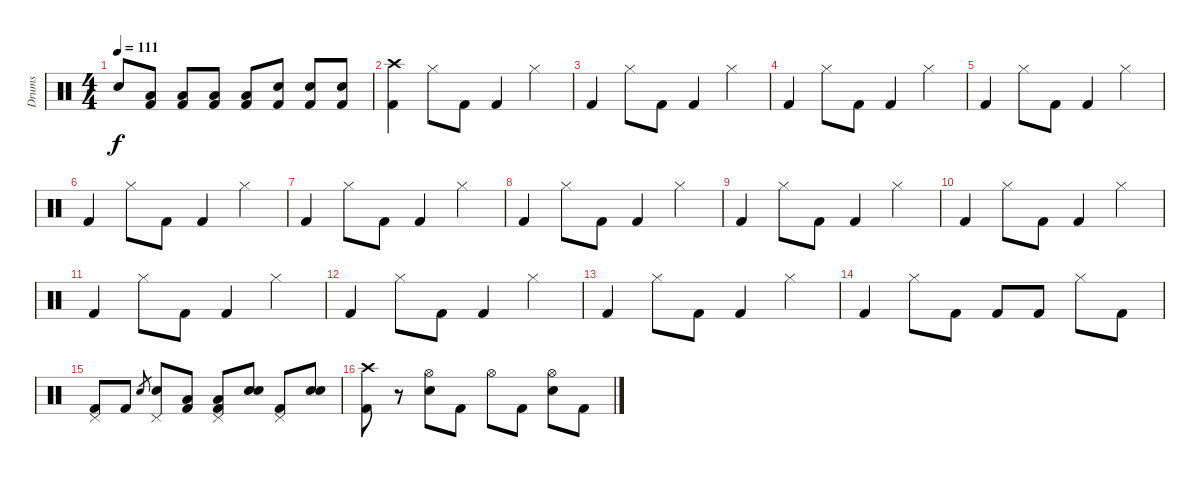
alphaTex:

\track ("Drums" "Drums") {instrument percussion}
\staff {score}
\articulation defaults
\ts (4 4)
\tempo 111
\clef neutral
\ks c "Snare (hit) 2".8{dy f}
("Low Floor Tom (hit)" "Kick (hit) 2").8 ("Low Floor Tom (hit)" "Kick (hit) 2").8 ("Low Floor Tom (hit)" "Kick (hit) 2").8 ("Low Floor Tom (hit)" "Kick (hit) 2").8 ("Snare (hit) 2" "Kick (hit) 2").8 ("Snare (hit) 2" "Kick (hit) 2").8 ("Snare (hit) 2" "Kick (hit) 2").8 |
("Crash high (hit)" "Kick (hit) 2").4 "Hi-Hat (closed)".8 "Kick (hit) 2".8 "Kick (hit) 2".4 "Hi-Hat (closed)".4 |
"Kick (hit) 2".4 "Hi-Hat (closed)".8 "Kick (hit) 2".8 "Kick (hit) 2".4 "Hi-Hat (closed)".4 |
"Kick (hit) 2".4 "Hi-Hat (closed)".8 "Kick (hit) 2".8 "Kick (hit) 2".4 "Hi-Hat (closed)".4 |
"Kick (hit) 2".4 "Hi-Hat (closed)".8 "Kick (hit) 2".8 "Kick (hit) 2".4 "Hi-Hat (closed)".4 |
"Kick (hit) 2".4 "Hi-Hat (closed)".8 "Kick (hit) 2".8 "Kick (hit) 2".4 "Hi-Hat (closed)".4 |
"Kick (hit) 2".4 "Hi-Hat (closed)".8 "Kick (hit) 2".8 "Kick (hit) 2".4 "Hi-Hat (closed)".4 |
"Kick (hit) 2".4 "Hi-Hat (closed)".8 "Kick (hit) 2".8 "Kick (hit) 2".4 "Hi-Hat (closed)".4 |
"Kick (hit) 2".4 "Hi-Hat (closed)".8 "Kick (hit) 2".8 "Kick (hit) 2".4 "Hi-Hat (closed)".4 |
"Kick (hit) 2".4 "Hi-Hat (closed)".8 "Kick (hit) 2".8 "Kick (hit) 2".4 "Hi-Hat (closed)".4 |
"Kick (hit) 2".4 "Hi-Hat (closed)".8 "Kick (hit) 2".8 "Kick (hit) 2".4 "Hi-Hat (closed)".4 |
"Kick (hit) 2".4 "Hi-Hat (closed)".8 "Kick (hit) 2".8 "Kick (hit) 2".4 "Hi-Hat (closed)".4 |
"Kick (hit) 2".4 "Hi-Hat (closed)".8 "Kick (hit) 2".8 "Kick (hit) 2".4 "Hi-Hat (closed)".4 |
"Kick (hit) 2".4 "Hi-Hat (closed)".8 "Kick (hit) 2".8 "Kick (hit) 2".8 "Kick (hit) 2".8 "Hi-Hat (closed)".8 "Kick (hit) 2".8 |
("Pedal Hi-Hat (hit)" "Kick (hit) 2").8 "Kick (hit) 2".8 "Snare (hit) 2".8{gr} ("Pedal Hi-Hat (hit)" "Snare (hit) 2").8 ("Low Floor Tom (hit)" "Kick (hit) 2").8 ("Pedal Hi-Hat (hit)" "Low Floor Tom (hit)" "Kick (hit) 2").8 ("Snare (hit) 2" "Snare (hit) 2").8 ("Pedal Hi-Hat (hit)" "Kick (hit) 2").8 ("Snare (hit) 2" "Snare (hit) 2").8 |
("Crash high (hit)" "Kick (hit) 2").8 r.8 ("Hi-Hat (open)" "Snare (hit) 2").8 "Kick (hit) 2".8 "Hi-Hat (open)".8 "Kick (hit) 2".8 ("Hi-Hat (open)" "Snare (hit) 2").8 "Kick (hit) 2".8
